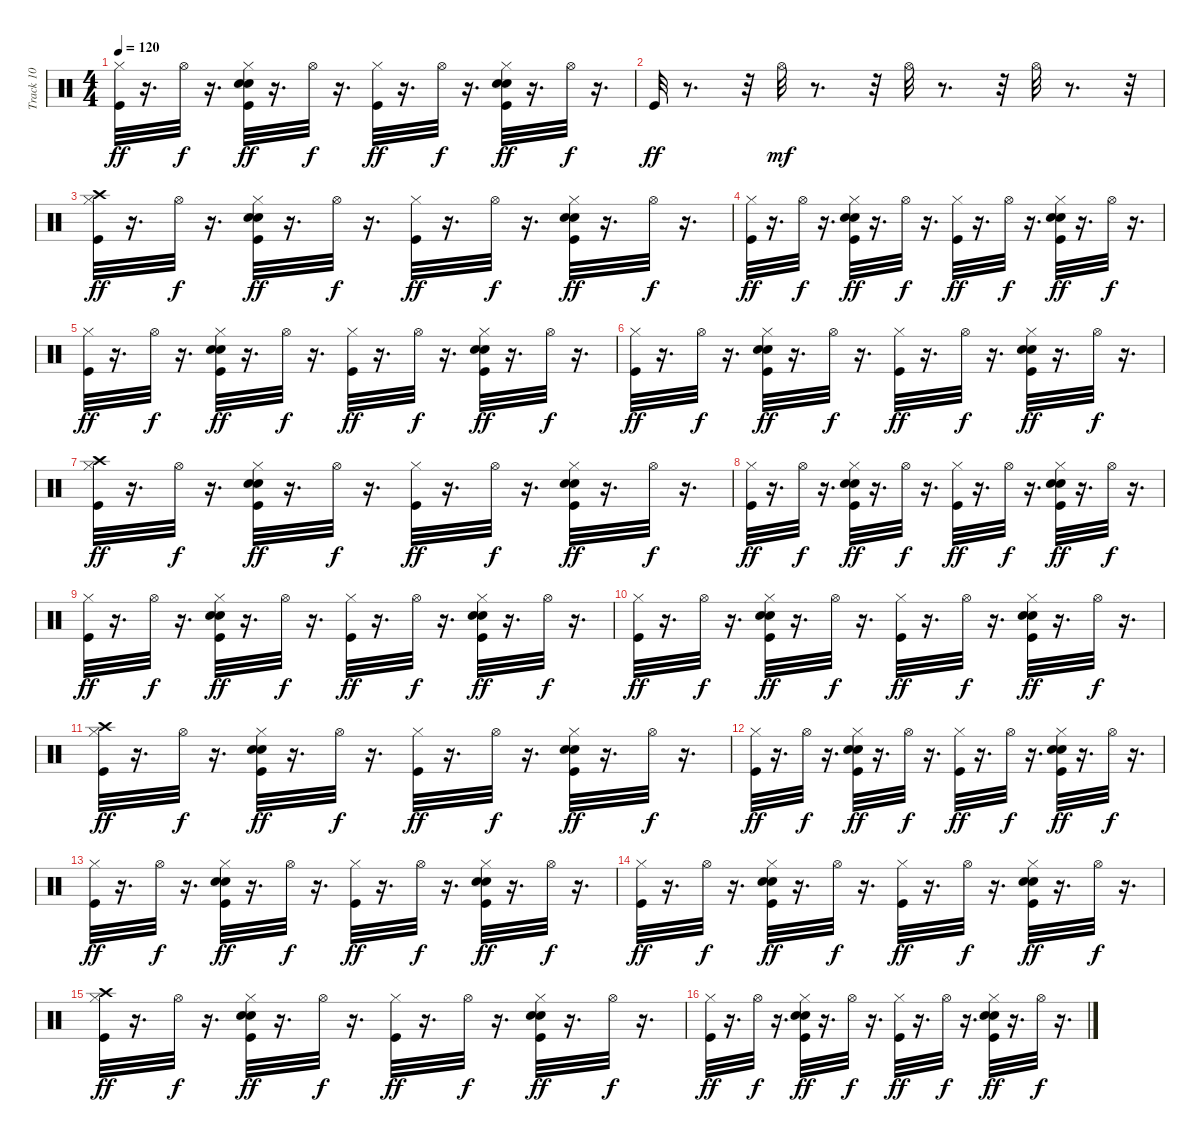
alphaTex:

\track ("Track 10" "Track 10") {instrument percussion}
\staff {score}
\articulation defaults
\ts (4 4)
\tempo 120
\clef neutral
\ks c
("Kick (hit)" "Hi-Hat (closed)").32{dy ff} r.16{d} "Hi-Hat (open)".32{dy f} r.16{d} ("Kick (hit)" "Snare (hit) 2" "Hand Clap (hit)" "Hi-Hat (closed)").32{dy ff} r.16{d} "Hi-Hat (open)".32{dy f} r.16{d} ("Kick (hit)" "Hi-Hat (closed)").32{dy ff} r.16{d} "Hi-Hat (open)".32{dy f} r.16{d} ("Kick (hit)" "Snare (hit) 2" "Hand Clap (hit)" "Hi-Hat (closed)").32{dy ff} r.16{d} "Hi-Hat (open)".32{dy f} r.16{d} |
"Kick (hit)".32{dy ff} r.8{d} r.32 "Hi-Hat (open)".32{dy mf} r.8{d} r.32 "Hi-Hat (open)".32 r.8{d} r.32 "Hi-Hat (open)".32 r.8{d} r.32 |
("Kick (hit)" "Hi-Hat (closed)" "Crash high (hit)").32{dy ff} r.16{d} "Hi-Hat (open)".32{dy f} r.16{d} ("Kick (hit)" "Snare (hit) 2" "Hand Clap (hit)" "Hi-Hat (closed)").32{dy ff} r.16{d} "Hi-Hat (open)".32{dy f} r.16{d} ("Kick (hit)" "Hi-Hat (closed)").32{dy ff} r.16{d} "Hi-Hat (open)".32{dy f} r.16{d} ("Kick (hit)" "Snare (hit) 2" "Hand Clap (hit)" "Hi-Hat (closed)").32{dy ff} r.16{d} "Hi-Hat (open)".32{dy f} r.16{d} |
("Kick (hit)" "Hi-Hat (closed)").32{dy ff} r.16{d} "Hi-Hat (open)".32{dy f} r.16{d} ("Kick (hit)" "Snare (hit) 2" "Hand Clap (hit)" "Hi-Hat (closed)").32{dy ff} r.16{d} "Hi-Hat (open)".32{dy f} r.16{d} ("Kick (hit)" "Hi-Hat (closed)").32{dy ff} r.16{d} "Hi-Hat (open)".32{dy f} r.16{d} ("Kick (hit)" "Snare (hit) 2" "Hand Clap (hit)" "Hi-Hat (closed)").32{dy ff} r.16{d} "Hi-Hat (open)".32{dy f} r.16{d} |
("Kick (hit)" "Hi-Hat (closed)").32{dy ff} r.16{d} "Hi-Hat (open)".32{dy f} r.16{d} ("Kick (hit)" "Snare (hit) 2" "Hand Clap (hit)" "Hi-Hat (closed)").32{dy ff} r.16{d} "Hi-Hat (open)".32{dy f} r.16{d} ("Kick (hit)" "Hi-Hat (closed)").32{dy ff} r.16{d} "Hi-Hat (open)".32{dy f} r.16{d} ("Kick (hit)" "Snare (hit) 2" "Hand Clap (hit)" "Hi-Hat (closed)").32{dy ff} r.16{d} "Hi-Hat (open)".32{dy f} r.16{d} |
("Kick (hit)" "Hi-Hat (closed)").32{dy ff} r.16{d} "Hi-Hat (open)".32{dy f} r.16{d} ("Kick (hit)" "Snare (hit) 2" "Hand Clap (hit)" "Hi-Hat (closed)").32{dy ff} r.16{d} "Hi-Hat (open)".32{dy f} r.16{d} ("Kick (hit)" "Hi-Hat (closed)").32{dy ff} r.16{d} "Hi-Hat (open)".32{dy f} r.16{d} ("Kick (hit)" "Snare (hit) 2" "Hand Clap (hit)" "Hi-Hat (closed)").32{dy ff} r.16{d} "Hi-Hat (open)".32{dy f} r.16{d} |
("Kick (hit)" "Hi-Hat (closed)" "Crash high (hit)").32{dy ff} r.16{d} "Hi-Hat (open)".32{dy f} r.16{d} ("Kick (hit)" "Snare (hit) 2" "Hand Clap (hit)" "Hi-Hat (closed)").32{dy ff} r.16{d} "Hi-Hat (open)".32{dy f} r.16{d} ("Kick (hit)" "Hi-Hat (closed)").32{dy ff} r.16{d} "Hi-Hat (open)".32{dy f} r.16{d} ("Kick (hit)" "Snare (hit) 2" "Hand Clap (hit)" "Hi-Hat (closed)").32{dy ff} r.16{d} "Hi-Hat (open)".32{dy f} r.16{d} |
("Kick (hit)" "Hi-Hat (closed)").32{dy ff} r.16{d} "Hi-Hat (open)".32{dy f} r.16{d} ("Kick (hit)" "Snare (hit) 2" "Hand Clap (hit)" "Hi-Hat (closed)").32{dy ff} r.16{d} "Hi-Hat (open)".32{dy f} r.16{d} ("Kick (hit)" "Hi-Hat (closed)").32{dy ff} r.16{d} "Hi-Hat (open)".32{dy f} r.16{d} ("Kick (hit)" "Snare (hit) 2" "Hand Clap (hit)" "Hi-Hat (closed)").32{dy ff} r.16{d} "Hi-Hat (open)".32{dy f} r.16{d} |
("Kick (hit)" "Hi-Hat (closed)").32{dy ff} r.16{d} "Hi-Hat (open)".32{dy f} r.16{d} ("Kick (hit)" "Snare (hit) 2" "Hand Clap (hit)" "Hi-Hat (closed)").32{dy ff} r.16{d} "Hi-Hat (open)".32{dy f} r.16{d} ("Kick (hit)" "Hi-Hat (closed)").32{dy ff} r.16{d} "Hi-Hat (open)".32{dy f} r.16{d} ("Kick (hit)" "Snare (hit) 2" "Hand Clap (hit)" "Hi-Hat (closed)").32{dy ff} r.16{d} "Hi-Hat (open)".32{dy f} r.16{d} |
("Kick (hit)" "Hi-Hat (closed)").32{dy ff} r.16{d} "Hi-Hat (open)".32{dy f} r.16{d} ("Kick (hit)" "Snare (hit) 2" "Hand Clap (hit)" "Hi-Hat (closed)").32{dy ff} r.16{d} "Hi-Hat (open)".32{dy f} r.16{d} ("Kick (hit)" "Hi-Hat (closed)").32{dy ff} r.16{d} "Hi-Hat (open)".32{dy f} r.16{d} ("Kick (hit)" "Snare (hit) 2" "Hand Clap (hit)" "Hi-Hat (closed)").32{dy ff} r.16{d} "Hi-Hat (open)".32{dy f} r.16{d} |
("Kick (hit)" "Hi-Hat (closed)" "Crash high (hit)").32{dy ff} r.16{d} "Hi-Hat (open)".32{dy f} r.16{d} ("Kick (hit)" "Snare (hit) 2" "Hand Clap (hit)" "Hi-Hat (closed)").32{dy ff} r.16{d} "Hi-Hat (open)".32{dy f} r.16{d} ("Kick (hit)" "Hi-Hat (closed)").32{dy ff} r.16{d} "Hi-Hat (open)".32{dy f} r.16{d} ("Kick (hit)" "Snare (hit) 2" "Hand Clap (hit)" "Hi-Hat (closed)").32{dy ff} r.16{d} "Hi-Hat (open)".32{dy f} r.16{d} |
("Kick (hit)" "Hi-Hat (closed)").32{dy ff} r.16{d} "Hi-Hat (open)".32{dy f} r.16{d} ("Kick (hit)" "Snare (hit) 2" "Hand Clap (hit)" "Hi-Hat (closed)").32{dy ff} r.16{d} "Hi-Hat (open)".32{dy f} r.16{d} ("Kick (hit)" "Hi-Hat (closed)").32{dy ff} r.16{d} "Hi-Hat (open)".32{dy f} r.16{d} ("Kick (hit)" "Snare (hit) 2" "Hand Clap (hit)" "Hi-Hat (closed)").32{dy ff} r.16{d} "Hi-Hat (open)".32{dy f} r.16{d} |
("Kick (hit)" "Hi-Hat (closed)").32{dy ff} r.16{d} "Hi-Hat (open)".32{dy f} r.16{d} ("Kick (hit)" "Snare (hit) 2" "Hand Clap (hit)" "Hi-Hat (closed)").32{dy ff} r.16{d} "Hi-Hat (open)".32{dy f} r.16{d} ("Kick (hit)" "Hi-Hat (closed)").32{dy ff} r.16{d} "Hi-Hat (open)".32{dy f} r.16{d} ("Kick (hit)" "Snare (hit) 2" "Hand Clap (hit)" "Hi-Hat (closed)").32{dy ff} r.16{d} "Hi-Hat (open)".32{dy f} r.16{d} |
("Kick (hit)" "Hi-Hat (closed)").32{dy ff} r.16{d} "Hi-Hat (open)".32{dy f} r.16{d} ("Kick (hit)" "Snare (hit) 2" "Hand Clap (hit)" "Hi-Hat (closed)").32{dy ff} r.16{d} "Hi-Hat (open)".32{dy f} r.16{d} ("Kick (hit)" "Hi-Hat (closed)").32{dy ff} r.16{d} "Hi-Hat (open)".32{dy f} r.16{d} ("Kick (hit)" "Snare (hit) 2" "Hand Clap (hit)" "Hi-Hat (closed)").32{dy ff} r.16{d} "Hi-Hat (open)".32{dy f} r.16{d} |
("Kick (hit)" "Hi-Hat (closed)" "Crash high (hit)").32{dy ff} r.16{d} "Hi-Hat (open)".32{dy f} r.16{d} ("Kick (hit)" "Snare (hit) 2" "Hand Clap (hit)" "Hi-Hat (closed)").32{dy ff} r.16{d} "Hi-Hat (open)".32{dy f} r.16{d} ("Kick (hit)" "Hi-Hat (closed)").32{dy ff} r.16{d} "Hi-Hat (open)".32{dy f} r.16{d} ("Kick (hit)" "Snare (hit) 2" "Hand Clap (hit)" "Hi-Hat (closed)").32{dy ff} r.16{d} "Hi-Hat (open)".32{dy f} r.16{d} |
("Kick (hit)" "Hi-Hat (closed)").32{dy ff} r.16{d} "Hi-Hat (open)".32{dy f} r.16{d} ("Kick (hit)" "Snare (hit) 2" "Hand Clap (hit)" "Hi-Hat (closed)").32{dy ff} r.16{d} "Hi-Hat (open)".32{dy f} r.16{d} ("Kick (hit)" "Hi-Hat (closed)").32{dy ff} r.16{d} "Hi-Hat (open)".32{dy f} r.16{d} ("Kick (hit)" "Snare (hit) 2" "Hand Clap (hit)" "Hi-Hat (closed)").32{dy ff} r.16{d} "Hi-Hat (open)".32{dy f} r.16{d}
